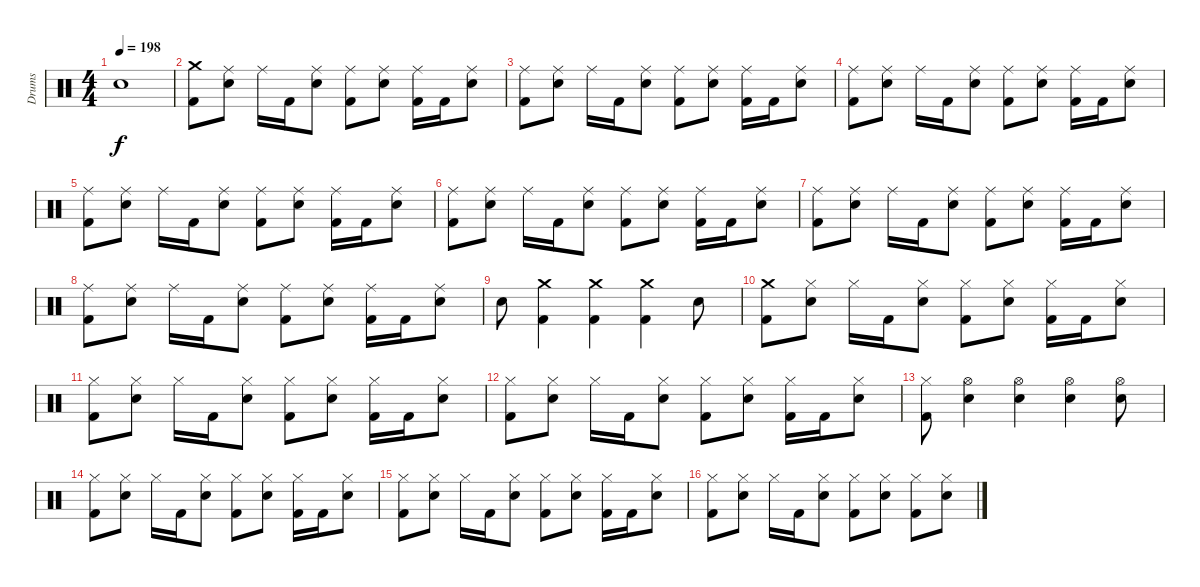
\track ("Drums" "Drums") {instrument percussion}
\staff {score}
\articulation defaults
\ts (4 4)
\tempo 198
\clef neutral
\ks c "Snare (hit)"{t}.1{dy f}
|
("Crash medium (hit)" "Kick (hit) 2").8 ("Ride (middle)" "Electric Snare (hit)").8 "Ride (middle)".16 "Kick (hit) 2".16 ("Ride (middle)" "Electric Snare (hit)").8 ("Ride (middle)" "Kick (hit) 2").8 ("Ride (middle)" "Electric Snare (hit)").8 ("Ride (middle)" "Kick (hit) 2").16 "Kick (hit) 2".16 ("Ride (middle)" "Electric Snare (hit)").8 |
("Ride (middle)" "Kick (hit) 2").8 ("Ride (middle)" "Electric Snare (hit)").8 "Ride (middle)".16 "Kick (hit) 2".16 ("Ride (middle)" "Electric Snare (hit)").8 ("Ride (middle)" "Kick (hit) 2").8 ("Ride (middle)" "Electric Snare (hit)").8 ("Ride (middle)" "Kick (hit) 2").16 "Kick (hit) 2".16 ("Ride (middle)" "Electric Snare (hit)").8 |
("Ride (middle)" "Kick (hit) 2").8 ("Ride (middle)" "Electric Snare (hit)").8 "Ride (middle)".16 "Kick (hit) 2".16 ("Ride (middle)" "Electric Snare (hit)").8 ("Ride (middle)" "Kick (hit) 2").8 ("Ride (middle)" "Electric Snare (hit)").8 ("Ride (middle)" "Kick (hit) 2").16 "Kick (hit) 2".16 ("Ride (middle)" "Electric Snare (hit)").8 |
("Ride (middle)" "Kick (hit) 2").8 ("Ride (middle)" "Electric Snare (hit)").8 "Ride (middle)".16 "Kick (hit) 2".16 ("Ride (middle)" "Electric Snare (hit)").8 ("Ride (middle)" "Kick (hit) 2").8 ("Ride (middle)" "Electric Snare (hit)").8 ("Ride (middle)" "Kick (hit) 2").16 "Kick (hit) 2".16 ("Ride (middle)" "Electric Snare (hit)").8 |
("Ride (middle)" "Kick (hit) 2").8 ("Ride (middle)" "Electric Snare (hit)").8 "Ride (middle)".16 "Kick (hit) 2".16 ("Ride (middle)" "Electric Snare (hit)").8 ("Ride (middle)" "Kick (hit) 2").8 ("Ride (middle)" "Electric Snare (hit)").8 ("Ride (middle)" "Kick (hit) 2").16 "Kick (hit) 2".16 ("Ride (middle)" "Electric Snare (hit)").8 |
("Ride (middle)" "Kick (hit) 2").8 ("Ride (middle)" "Electric Snare (hit)").8 "Ride (middle)".16 "Kick (hit) 2".16 ("Ride (middle)" "Electric Snare (hit)").8 ("Ride (middle)" "Kick (hit) 2").8 ("Ride (middle)" "Electric Snare (hit)").8 ("Ride (middle)" "Kick (hit) 2").16 "Kick (hit) 2".16 ("Ride (middle)" "Electric Snare (hit)").8 |
("Ride (middle)" "Kick (hit) 2").8 ("Ride (middle)" "Electric Snare (hit)").8 "Ride (middle)".16 "Kick (hit) 2".16 ("Ride (middle)" "Electric Snare (hit)").8 ("Ride (middle)" "Kick (hit) 2").8 ("Ride (middle)" "Electric Snare (hit)").8 ("Ride (middle)" "Kick (hit) 2").16 "Kick (hit) 2".16 ("Ride (middle)" "Electric Snare (hit)").8 |
"Electric Snare (hit)".8 ("Crash medium (hit)" "Kick (hit) 2").4 ("Crash medium (hit)" "Kick (hit) 2").4 ("Crash medium (hit)" "Kick (hit) 2").4 "Snare (hit) 2".8 |
("Crash medium (hit)" "Kick (hit) 2").8 ("Hi-Hat (closed)" "Electric Snare (hit)").8 "Hi-Hat (closed)".16 "Kick (hit) 2".16 ("Hi-Hat (closed)" "Electric Snare (hit)").8 ("Hi-Hat (closed)" "Kick (hit) 2").8 ("Hi-Hat (closed)" "Electric Snare (hit)").8 ("Hi-Hat (closed)" "Kick (hit) 2").16 "Kick (hit) 2".16 ("Hi-Hat (closed)" "Electric Snare (hit)").8 |
("Hi-Hat (closed)" "Kick (hit) 2").8 ("Hi-Hat (closed)" "Electric Snare (hit)").8 "Hi-Hat (closed)".16 "Kick (hit) 2".16 ("Hi-Hat (closed)" "Electric Snare (hit)").8 ("Hi-Hat (closed)" "Kick (hit) 2").8 ("Hi-Hat (closed)" "Electric Snare (hit)").8 ("Hi-Hat (closed)" "Kick (hit) 2").16 "Kick (hit) 2".16 ("Hi-Hat (closed)" "Electric Snare (hit)").8 |
("Hi-Hat (closed)" "Kick (hit) 2").8 ("Hi-Hat (closed)" "Electric Snare (hit)").8 "Hi-Hat (closed)".16 "Kick (hit) 2".16 ("Hi-Hat (closed)" "Electric Snare (hit)").8 ("Hi-Hat (closed)" "Kick (hit) 2").8 ("Hi-Hat (closed)" "Electric Snare (hit)").8 ("Hi-Hat (closed)" "Kick (hit) 2").16 "Kick (hit) 2".16 ("Hi-Hat (closed)" "Electric Snare (hit)").8 |
("Hi-Hat (closed)" "Kick (hit) 2").8 ("Hi-Hat (open)" "Electric Snare (hit)").4 ("Hi-Hat (open)" "Electric Snare (hit)").4 ("Hi-Hat (open)" "Electric Snare (hit)").4 ("Hi-Hat (open)" "Electric Snare (hit)").8 |
("Hi-Hat (closed)" "Kick (hit) 2").8 ("Hi-Hat (closed)" "Electric Snare (hit)").8 "Hi-Hat (closed)".16 "Kick (hit) 2".16 ("Hi-Hat (closed)" "Electric Snare (hit)").8 ("Hi-Hat (closed)" "Kick (hit) 2").8 ("Hi-Hat (closed)" "Electric Snare (hit)").8 ("Hi-Hat (closed)" "Kick (hit) 2").16 "Kick (hit) 2".16 ("Hi-Hat (closed)" "Electric Snare (hit)").8 |
("Hi-Hat (closed)" "Kick (hit) 2").8 ("Hi-Hat (closed)" "Electric Snare (hit)").8 "Hi-Hat (closed)".16 "Kick (hit) 2".16 ("Hi-Hat (closed)" "Electric Snare (hit)").8 ("Hi-Hat (closed)" "Kick (hit) 2").8 ("Hi-Hat (closed)" "Electric Snare (hit)").8 ("Hi-Hat (closed)" "Kick (hit) 2").16 "Kick (hit) 2".16 ("Hi-Hat (closed)" "Electric Snare (hit)").8 |
("Hi-Hat (closed)" "Kick (hit) 2").8 ("Hi-Hat (closed)" "Electric Snare (hit)").8 "Hi-Hat (closed)".16 "Kick (hit) 2".16 ("Hi-Hat (closed)" "Electric Snare (hit)").8 ("Hi-Hat (closed)" "Kick (hit) 2").8 ("Hi-Hat (closed)" "Electric Snare (hit)").8 ("Hi-Hat (closed)" "Kick (hit) 2").8 ("Hi-Hat (closed)" "Electric Snare (hit)").8
